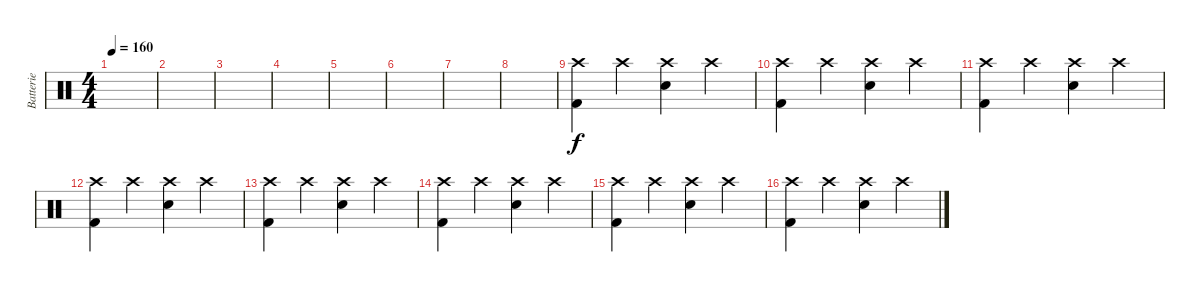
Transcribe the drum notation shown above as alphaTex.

\track ("Batterie" "Batterie") {instrument percussion}
\staff {score}
\articulation defaults
\ts (4 4)
\tempo 160
\clef neutral
\ks c
|
|
|
|
|
|
|
|
("Crash high (hit)" "Kick (hit) 2").4 "Crash high (hit)".4 ("Crash high (hit)" "Electric Snare (hit)").4 "Crash high (hit)".4 |
("Crash high (hit)" "Kick (hit) 2").4 "Crash high (hit)".4 ("Crash high (hit)" "Electric Snare (hit)").4 "Crash high (hit)".4 |
("Crash high (hit)" "Kick (hit) 2").4 "Crash high (hit)".4 ("Crash high (hit)" "Electric Snare (hit)").4 "Crash high (hit)".4 |
("Crash high (hit)" "Kick (hit) 2").4 "Crash high (hit)".4 ("Crash high (hit)" "Electric Snare (hit)").4 "Crash high (hit)".4 |
("Crash high (hit)" "Kick (hit) 2").4 "Crash high (hit)".4 ("Crash high (hit)" "Electric Snare (hit)").4 "Crash high (hit)".4 |
("Crash high (hit)" "Kick (hit) 2").4 "Crash high (hit)".4 ("Crash high (hit)" "Electric Snare (hit)").4 "Crash high (hit)".4 |
("Crash high (hit)" "Kick (hit) 2").4 "Crash high (hit)".4 ("Crash high (hit)" "Electric Snare (hit)").4 "Crash high (hit)".4 |
("Crash high (hit)" "Kick (hit) 2").4 "Crash high (hit)".4 ("Crash high (hit)" "Electric Snare (hit)").4 "Crash high (hit)".4
